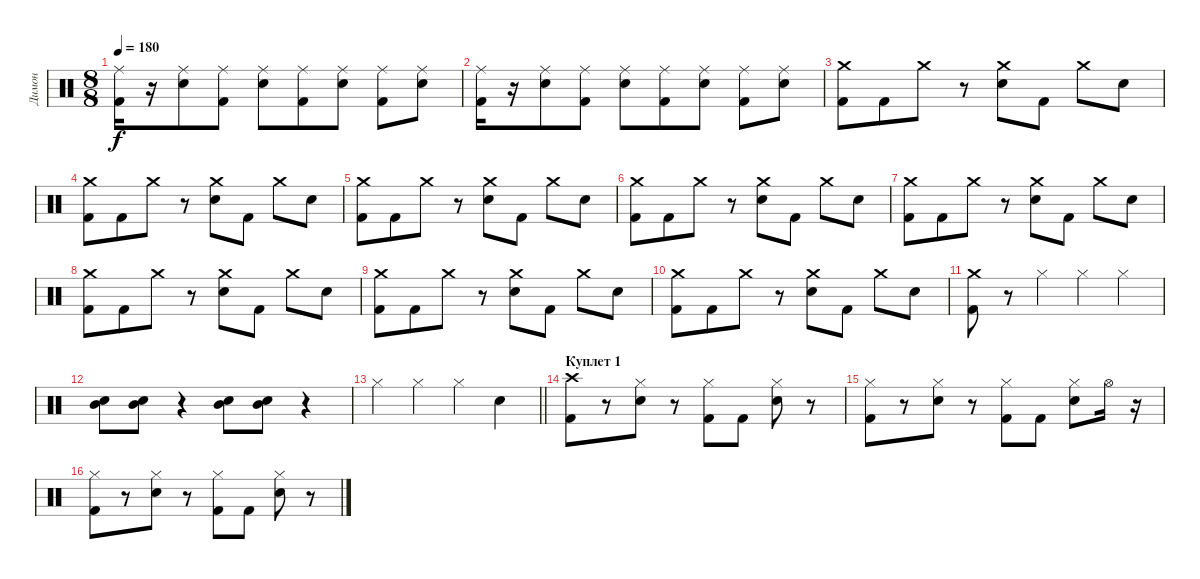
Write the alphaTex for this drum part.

\track ("Димон" "Димон") {instrument percussion}
\staff {score}
\articulation defaults
\ts (8 8)
\tempo 180
\clef neutral
\ks c
("Ride (middle)" "Kick (hit) 2").16{dy f} r.16 ("Electric Snare (hit)" "Ride (middle)").8 ("Kick (hit) 2" "Ride (middle)").8 ("Electric Snare (hit)" "Ride (middle)").8 ("Kick (hit) 2" "Ride (middle)").8 ("Electric Snare (hit)" "Ride (middle)").8 ("Kick (hit) 2" "Ride (middle)").8 ("Electric Snare (hit)" "Ride (middle)").8 |
("Ride (middle)" "Kick (hit) 2").16 r.16 ("Electric Snare (hit)" "Ride (middle)").8 ("Kick (hit) 2" "Ride (middle)").8 ("Electric Snare (hit)" "Ride (middle)").8 ("Kick (hit) 2" "Ride (middle)").8 ("Electric Snare (hit)" "Ride (middle)").8 ("Kick (hit) 2" "Ride (middle)").8 ("Electric Snare (hit)" "Ride (middle)").8 |
("Kick (hit) 2" "Crash medium (hit)").8 "Kick (hit) 2".8 "Crash medium (hit)".8 r.8 ("Electric Snare (hit)" "Crash medium (hit)").8 "Kick (hit) 2".8 "Crash medium (hit)".8 "Electric Snare (hit)".8 |
("Kick (hit) 2" "Crash medium (hit)").8 "Kick (hit) 2".8 "Crash medium (hit)".8 r.8 ("Electric Snare (hit)" "Crash medium (hit)").8 "Kick (hit) 2".8 "Crash medium (hit)".8 "Electric Snare (hit)".8 |
("Kick (hit) 2" "Crash medium (hit)").8 "Kick (hit) 2".8 "Crash medium (hit)".8 r.8 ("Electric Snare (hit)" "Crash medium (hit)").8 "Kick (hit) 2".8 "Crash medium (hit)".8 "Electric Snare (hit)".8 |
("Kick (hit) 2" "Crash medium (hit)").8 "Kick (hit) 2".8 "Crash medium (hit)".8 r.8 ("Electric Snare (hit)" "Crash medium (hit)").8 "Kick (hit) 2".8 "Crash medium (hit)".8 "Electric Snare (hit)".8 |
("Kick (hit) 2" "Crash medium (hit)").8 "Kick (hit) 2".8 "Crash medium (hit)".8 r.8 ("Electric Snare (hit)" "Crash medium (hit)").8 "Kick (hit) 2".8 "Crash medium (hit)".8 "Electric Snare (hit)".8 |
("Kick (hit) 2" "Crash medium (hit)").8 "Kick (hit) 2".8 "Crash medium (hit)".8 r.8 ("Electric Snare (hit)" "Crash medium (hit)").8 "Kick (hit) 2".8 "Crash medium (hit)".8 "Electric Snare (hit)".8 |
("Kick (hit) 2" "Crash medium (hit)").8 "Kick (hit) 2".8 "Crash medium (hit)".8 r.8 ("Electric Snare (hit)" "Crash medium (hit)").8 "Kick (hit) 2".8 "Crash medium (hit)".8 "Electric Snare (hit)".8 |
("Kick (hit) 2" "Crash medium (hit)").8 "Kick (hit) 2".8 "Crash medium (hit)".8 r.8 ("Electric Snare (hit)" "Crash medium (hit)").8 "Kick (hit) 2".8 "Crash medium (hit)".8 "Electric Snare (hit)".8 |
("Kick (hit) 2" "Crash medium (hit)").8 r.8 "Hi-Hat (closed)".4 "Hi-Hat (closed)".4 "Hi-Hat (closed)".4 |
("Mid Tom (hit)" "Electric Snare (hit)").8 ("Mid Tom (hit)" "Electric Snare (hit)").8 r.4 ("Mid Tom (hit)" "Electric Snare (hit)").8 ("Electric Snare (hit)" "Mid Tom (hit)").8 r.4 |
\barLineRight lightlight "Hi-Hat (closed)".4 "Hi-Hat (closed)".4 "Hi-Hat (closed)".4 "Electric Snare (hit)".4
|
\section ("" "Куплет 1")
("Crash high (hit)" "Kick (hit) 2").8 r.8 ("Hi-Hat (closed)" "Electric Snare (hit)").8 r.8 ("Hi-Hat (closed)" "Kick (hit) 2").8 "Kick (hit) 2".8 ("Hi-Hat (closed)" "Electric Snare (hit)").8 r.8 |
("Hi-Hat (closed)" "Kick (hit) 2").8 r.8 ("Hi-Hat (closed)" "Electric Snare (hit)").8 r.8 ("Hi-Hat (closed)" "Kick (hit) 2").8 "Kick (hit) 2".8 ("Hi-Hat (closed)" "Electric Snare (hit)").8 "Hi-Hat (open)".16 r.16 |
("Hi-Hat (closed)" "Kick (hit) 2").8 r.8 ("Hi-Hat (closed)" "Electric Snare (hit)").8 r.8 ("Hi-Hat (closed)" "Kick (hit) 2").8 "Kick (hit) 2".8 ("Hi-Hat (closed)" "Electric Snare (hit)").8 r.8
